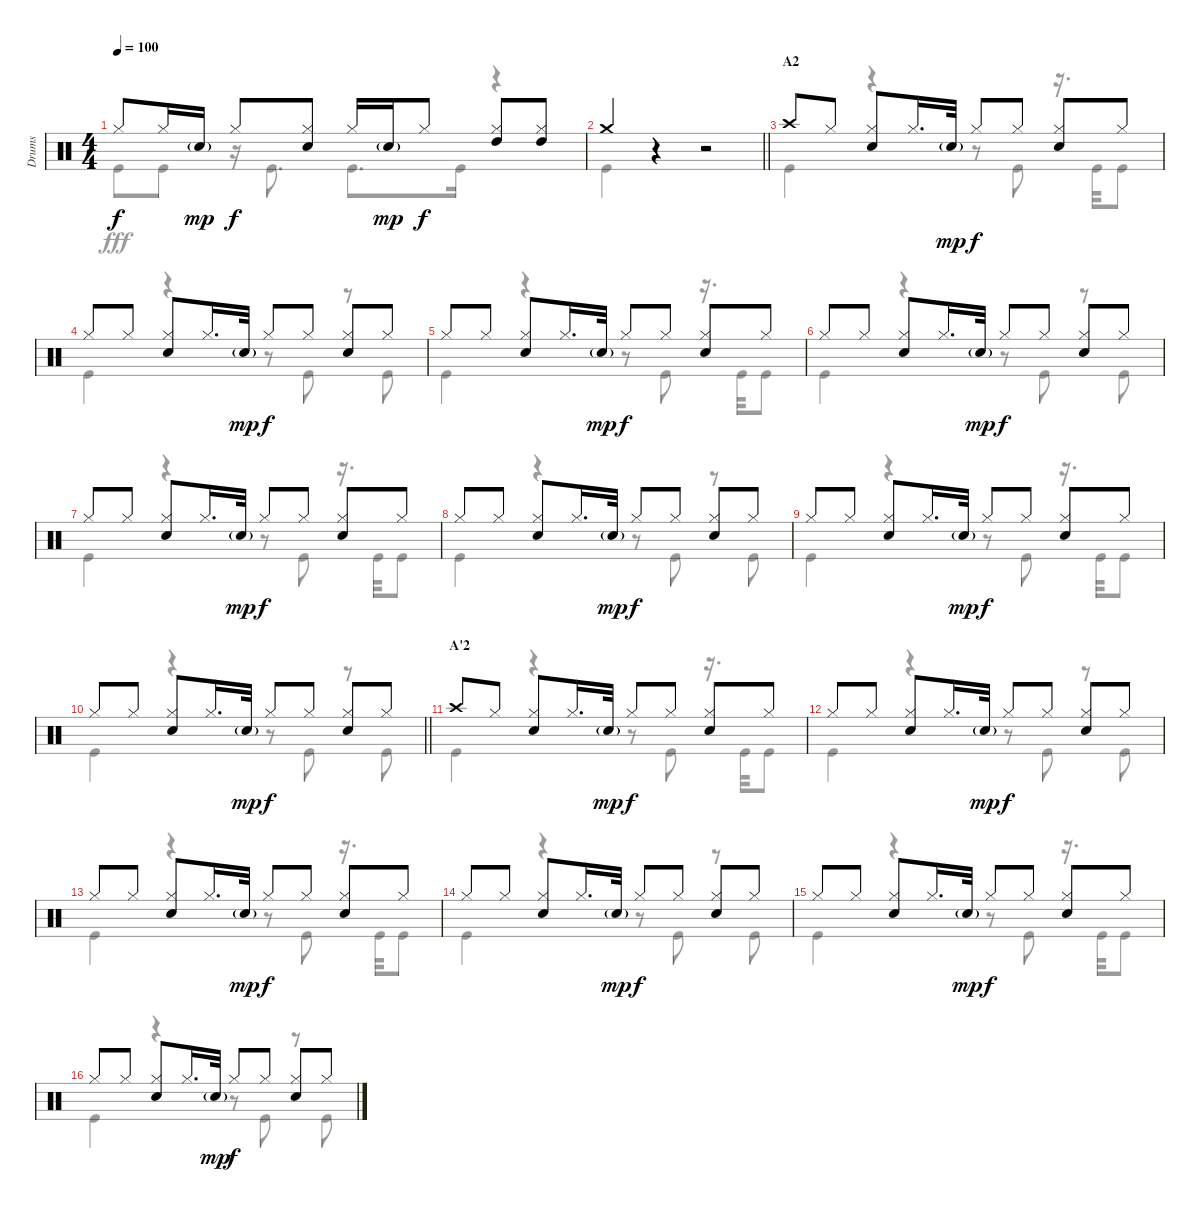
\track ("Drums" "Drums") {instrument percussion}
\staff {score}
\articulation defaults
\voice
\ts (4 4)
\tempo 100
\clef neutral
\ks c "Hi-Hat (closed)".8{dy f} "Hi-Hat (closed)".16 "Snare (hit) 2"{g}.16{dy mp} "Hi-Hat (closed)".8{dy f}
("Hi-Hat (closed)" "Snare (hit) 2").8 "Hi-Hat (closed)".16 "Snare (hit) 2"{g}.16{dy mp} "Hi-Hat (closed)".8{dy f} ("Hi-Hat (closed)" "High Tom (hit)").8 ("Hi-Hat (closed)" "High Tom (hit)").8 |
\barLineRight lightlight "Crash medium (hit)".4
r.4 r.2 |
\section ("" "A2")
"Crash high (hit)".8 "Hi-Hat (closed)".8 ("Hi-Hat (closed)" "Snare (hit) 2").8 "Hi-Hat (closed)".16{d} "Snare (hit) 2"{g}.32{dy mp} "Hi-Hat (closed)".8{dy f} "Hi-Hat (closed)".8 ("Hi-Hat (closed)" "Snare (hit) 2").8 "Hi-Hat (closed)".8 |
"Hi-Hat (closed)".8 "Hi-Hat (closed)".8 ("Hi-Hat (closed)" "Snare (hit) 2").8 "Hi-Hat (closed)".16{d} "Snare (hit) 2"{g}.32{dy mp} "Hi-Hat (closed)".8{dy f} "Hi-Hat (closed)".8 ("Hi-Hat (closed)" "Snare (hit) 2").8 "Hi-Hat (closed)".8 |
"Hi-Hat (closed)".8 "Hi-Hat (closed)".8 ("Hi-Hat (closed)" "Snare (hit) 2").8 "Hi-Hat (closed)".16{d} "Snare (hit) 2"{g}.32{dy mp} "Hi-Hat (closed)".8{dy f} "Hi-Hat (closed)".8 ("Hi-Hat (closed)" "Snare (hit) 2").8 "Hi-Hat (closed)".8 |
"Hi-Hat (closed)".8 "Hi-Hat (closed)".8 ("Hi-Hat (closed)" "Snare (hit) 2").8 "Hi-Hat (closed)".16{d} "Snare (hit) 2"{g}.32{dy mp} "Hi-Hat (closed)".8{dy f} "Hi-Hat (closed)".8 ("Hi-Hat (closed)" "Snare (hit) 2").8 "Hi-Hat (closed)".8 |
"Hi-Hat (closed)".8 "Hi-Hat (closed)".8 ("Hi-Hat (closed)" "Snare (hit) 2").8 "Hi-Hat (closed)".16{d} "Snare (hit) 2"{g}.32{dy mp} "Hi-Hat (closed)".8{dy f} "Hi-Hat (closed)".8 ("Hi-Hat (closed)" "Snare (hit) 2").8 "Hi-Hat (closed)".8 |
"Hi-Hat (closed)".8 "Hi-Hat (closed)".8 ("Hi-Hat (closed)" "Snare (hit) 2").8 "Hi-Hat (closed)".16{d} "Snare (hit) 2"{g}.32{dy mp} "Hi-Hat (closed)".8{dy f} "Hi-Hat (closed)".8 ("Hi-Hat (closed)" "Snare (hit) 2").8 "Hi-Hat (closed)".8 |
"Hi-Hat (closed)".8 "Hi-Hat (closed)".8 ("Hi-Hat (closed)" "Snare (hit) 2").8 "Hi-Hat (closed)".16{d} "Snare (hit) 2"{g}.32{dy mp} "Hi-Hat (closed)".8{dy f} "Hi-Hat (closed)".8 ("Hi-Hat (closed)" "Snare (hit) 2").8 "Hi-Hat (closed)".8 |
\barLineRight lightlight "Hi-Hat (closed)".8 "Hi-Hat (closed)".8
("Hi-Hat (closed)" "Snare (hit) 2").8 "Hi-Hat (closed)".16{d} "Snare (hit) 2"{g}.32{dy mp} "Hi-Hat (closed)".8{dy f} "Hi-Hat (closed)".8 ("Hi-Hat (closed)" "Snare (hit) 2").8 "Hi-Hat (closed)".8 |
\section ("" "A'2")
"Crash high (hit)".8 "Hi-Hat (closed)".8 ("Hi-Hat (closed)" "Snare (hit) 2").8 "Hi-Hat (closed)".16{d} "Snare (hit) 2"{g}.32{dy mp} "Hi-Hat (closed)".8{dy f} "Hi-Hat (closed)".8 ("Hi-Hat (closed)" "Snare (hit) 2").8 "Hi-Hat (closed)".8 |
"Hi-Hat (closed)".8 "Hi-Hat (closed)".8 ("Hi-Hat (closed)" "Snare (hit) 2").8 "Hi-Hat (closed)".16{d} "Snare (hit) 2"{g}.32{dy mp} "Hi-Hat (closed)".8{dy f} "Hi-Hat (closed)".8 ("Hi-Hat (closed)" "Snare (hit) 2").8 "Hi-Hat (closed)".8 |
"Hi-Hat (closed)".8 "Hi-Hat (closed)".8 ("Hi-Hat (closed)" "Snare (hit) 2").8 "Hi-Hat (closed)".16{d} "Snare (hit) 2"{g}.32{dy mp} "Hi-Hat (closed)".8{dy f} "Hi-Hat (closed)".8 ("Hi-Hat (closed)" "Snare (hit) 2").8 "Hi-Hat (closed)".8 |
"Hi-Hat (closed)".8 "Hi-Hat (closed)".8 ("Hi-Hat (closed)" "Snare (hit) 2").8 "Hi-Hat (closed)".16{d} "Snare (hit) 2"{g}.32{dy mp} "Hi-Hat (closed)".8{dy f} "Hi-Hat (closed)".8 ("Hi-Hat (closed)" "Snare (hit) 2").8 "Hi-Hat (closed)".8 |
"Hi-Hat (closed)".8 "Hi-Hat (closed)".8 ("Hi-Hat (closed)" "Snare (hit) 2").8 "Hi-Hat (closed)".16{d} "Snare (hit) 2"{g}.32{dy mp} "Hi-Hat (closed)".8{dy f} "Hi-Hat (closed)".8 ("Hi-Hat (closed)" "Snare (hit) 2").8 "Hi-Hat (closed)".8 |
"Hi-Hat (closed)".8 "Hi-Hat (closed)".8 ("Hi-Hat (closed)" "Snare (hit) 2").8 "Hi-Hat (closed)".16{d} "Snare (hit) 2"{g}.32{dy mp} "Hi-Hat (closed)".8{dy f} "Hi-Hat (closed)".8 ("Hi-Hat (closed)" "Snare (hit) 2").8 "Hi-Hat (closed)".8
\voice
\clef neutral
\ottava regular
\simile none
\ks c "Kick (hit)".8{dy fff} "Kick (hit)".8
r.16 "Kick (hit)".8{d} "Kick (hit)".8{d} "Kick (hit)".16 r.4 |
\barLineRight lightlight "Kick (hit)".4
r.4 r.2 |
"Kick (hit)".4 r.4 r.8 "Kick (hit)".8 r.16{d} "Kick (hit)".32 "Kick (hit)".8 |
"Kick (hit)".4 r.4 r.8 "Kick (hit)".8 r.8 "Kick (hit)".8 |
"Kick (hit)".4 r.4 r.8 "Kick (hit)".8 r.16{d} "Kick (hit)".32 "Kick (hit)".8 |
"Kick (hit)".4 r.4 r.8 "Kick (hit)".8 r.8 "Kick (hit)".8 |
"Kick (hit)".4 r.4 r.8 "Kick (hit)".8 r.16{d} "Kick (hit)".32 "Kick (hit)".8 |
"Kick (hit)".4 r.4 r.8 "Kick (hit)".8 r.8 "Kick (hit)".8 |
"Kick (hit)".4 r.4 r.8 "Kick (hit)".8 r.16{d} "Kick (hit)".32 "Kick (hit)".8 |
\barLineRight lightlight "Kick (hit)".4
r.4 r.8 "Kick (hit)".8 r.8 "Kick (hit)".8 |
"Kick (hit)".4 r.4 r.8 "Kick (hit)".8 r.16{d} "Kick (hit)".32 "Kick (hit)".8 |
"Kick (hit)".4 r.4 r.8 "Kick (hit)".8 r.8 "Kick (hit)".8 |
"Kick (hit)".4 r.4 r.8 "Kick (hit)".8 r.16{d} "Kick (hit)".32 "Kick (hit)".8 |
"Kick (hit)".4 r.4 r.8 "Kick (hit)".8 r.8 "Kick (hit)".8 |
"Kick (hit)".4 r.4 r.8 "Kick (hit)".8 r.16{d} "Kick (hit)".32 "Kick (hit)".8 |
"Kick (hit)".4 r.4 r.8 "Kick (hit)".8 r.8 "Kick (hit)".8
